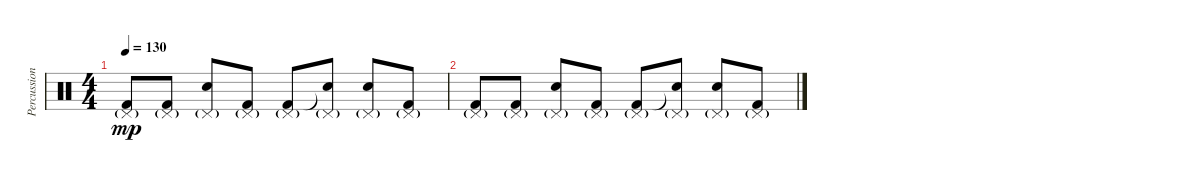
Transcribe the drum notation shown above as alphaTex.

\track ("Percussioni" "Percussion") {instrument percussion}
\staff {score}
\articulation defaults
\ts (4 4)
\tempo 130
\clef neutral
\ks c
("Pedal Hi-Hat (hit)"{g} "Kick (hit) 2").8{dy mp} ("Pedal Hi-Hat (hit)"{g} "Kick (hit) 2").8 ("Pedal Hi-Hat (hit)"{g} "Snare (hit) 2").8 ("Pedal Hi-Hat (hit)"{g} "Kick (hit) 2").8 ("Pedal Hi-Hat (hit)"{g} "Kick (hit) 2").8 ("Pedal Hi-Hat (hit)"{g} "Snare (hit)"{t}).8 ("Pedal Hi-Hat (hit)"{g} "Snare (hit) 2").8 ("Pedal Hi-Hat (hit)"{g} "Kick (hit) 2").8 |
("Pedal Hi-Hat (hit)"{g} "Kick (hit) 2").8 ("Pedal Hi-Hat (hit)"{g} "Kick (hit) 2").8 ("Pedal Hi-Hat (hit)"{g} "Snare (hit) 2").8 ("Pedal Hi-Hat (hit)"{g} "Kick (hit) 2").8 ("Pedal Hi-Hat (hit)"{g} "Kick (hit) 2").8 ("Pedal Hi-Hat (hit)"{g} "Snare (hit)"{t}).8 ("Pedal Hi-Hat (hit)"{g} "Snare (hit) 2").8 ("Pedal Hi-Hat (hit)"{g} "Kick (hit) 2").8
